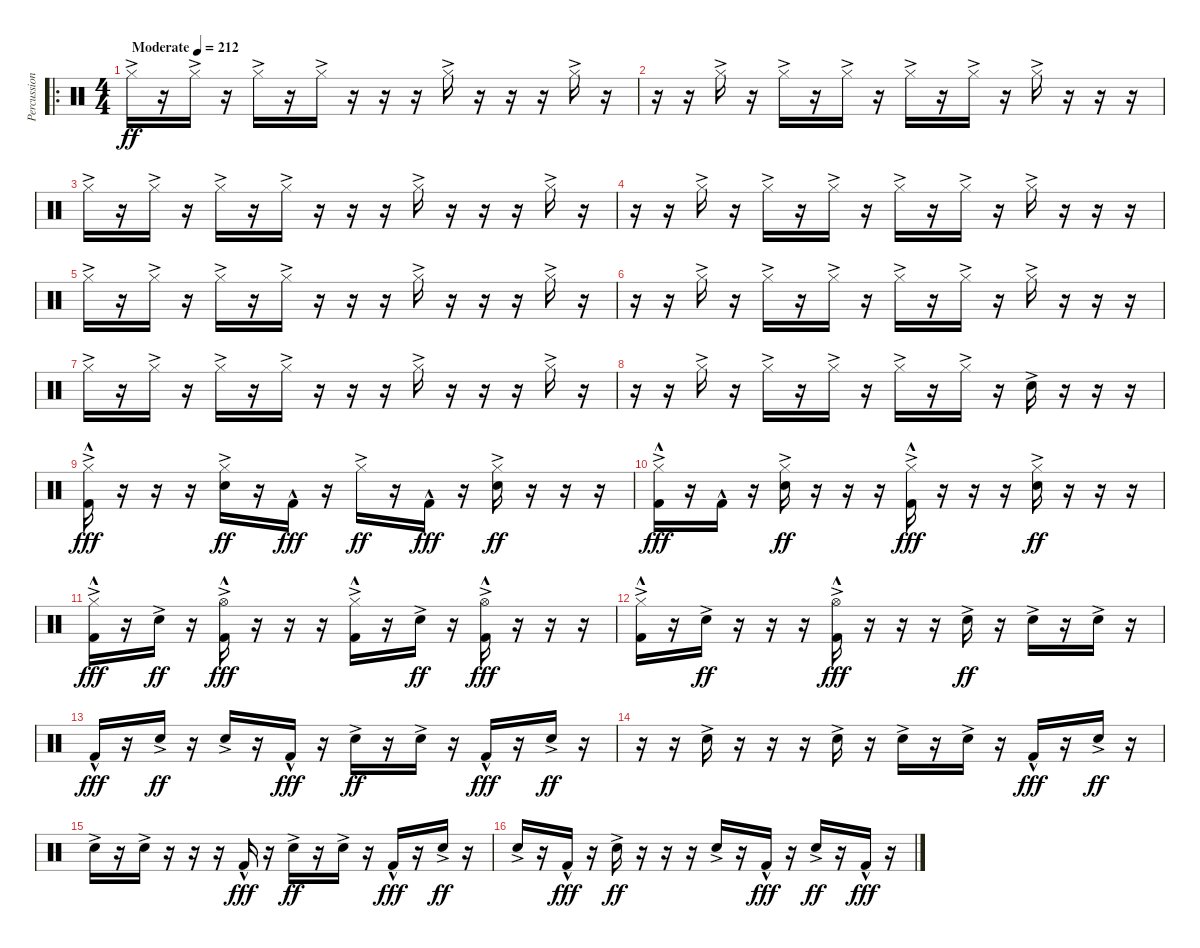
\track ("Percussion" "Percussion") {instrument percussion}
\staff {score}
\articulation defaults
\ro
\ts (4 4)
\tempo (212 "Moderate")
\clef neutral
\ks c "Hi-Hat (closed)"{ac}.16{dy ff}
r.16 "Hi-Hat (closed)"{ac}.16 r.16 "Hi-Hat (closed)"{ac}.16 r.16 "Hi-Hat (closed)"{ac}.16 r.16 r.16 r.16 "Hi-Hat (closed)"{ac}.16 r.16 r.16 r.16 "Hi-Hat (closed)"{ac}.16 r.16 |
r.16 r.16 "Hi-Hat (closed)"{ac}.16 r.16 "Hi-Hat (closed)"{ac}.16 r.16 "Hi-Hat (closed)"{ac}.16 r.16 "Hi-Hat (closed)"{ac}.16 r.16 "Hi-Hat (closed)"{ac}.16 r.16 "Hi-Hat (closed)"{ac}.16 r.16 r.16 r.16 |
"Hi-Hat (closed)"{ac}.16 r.16 "Hi-Hat (closed)"{ac}.16 r.16 "Hi-Hat (closed)"{ac}.16 r.16 "Hi-Hat (closed)"{ac}.16 r.16 r.16 r.16 "Hi-Hat (closed)"{ac}.16 r.16 r.16 r.16 "Hi-Hat (closed)"{ac}.16 r.16 |
r.16 r.16 "Hi-Hat (closed)"{ac}.16 r.16 "Hi-Hat (closed)"{ac}.16 r.16 "Hi-Hat (closed)"{ac}.16 r.16 "Hi-Hat (closed)"{ac}.16 r.16 "Hi-Hat (closed)"{ac}.16 r.16 "Hi-Hat (closed)"{ac}.16 r.16 r.16 r.16 |
"Hi-Hat (closed)"{ac}.16 r.16 "Hi-Hat (closed)"{ac}.16 r.16 "Hi-Hat (closed)"{ac}.16 r.16 "Hi-Hat (closed)"{ac}.16 r.16 r.16 r.16 "Hi-Hat (closed)"{ac}.16 r.16 r.16 r.16 "Hi-Hat (closed)"{ac}.16 r.16 |
r.16 r.16 "Hi-Hat (closed)"{ac}.16 r.16 "Hi-Hat (closed)"{ac}.16 r.16 "Hi-Hat (closed)"{ac}.16 r.16 "Hi-Hat (closed)"{ac}.16 r.16 "Hi-Hat (closed)"{ac}.16 r.16 "Hi-Hat (closed)"{ac}.16 r.16 r.16 r.16 |
"Hi-Hat (closed)"{ac}.16 r.16 "Hi-Hat (closed)"{ac}.16 r.16 "Hi-Hat (closed)"{ac}.16 r.16 "Hi-Hat (closed)"{ac}.16 r.16 r.16 r.16 "Hi-Hat (closed)"{ac}.16 r.16 r.16 r.16 "Hi-Hat (closed)"{ac}.16 r.16 |
r.16 r.16 "Hi-Hat (closed)"{ac}.16 r.16 "Hi-Hat (closed)"{ac}.16 r.16 "Hi-Hat (closed)"{ac}.16 r.16 "Hi-Hat (closed)"{ac}.16 r.16 "Hi-Hat (closed)"{ac}.16 r.16 "Snare (hit) 2"{ac}.16 r.16 r.16 r.16 |
("Hi-Hat (closed)"{ac} "Kick (hit) 2"{hac}).16{dy fff} r.16 r.16 r.16 ("Hi-Hat (closed)"{ac} "Snare (hit) 2"{ac}).16{dy ff} r.16 "Kick (hit) 2"{hac}.16{dy fff} r.16 "Hi-Hat (closed)"{ac}.16{dy ff} r.16 "Kick (hit) 2"{hac}.16{dy fff} r.16 ("Hi-Hat (closed)"{ac} "Snare (hit) 2"{ac}).16{dy ff} r.16 r.16 r.16 |
("Hi-Hat (closed)"{ac} "Kick (hit) 2"{hac}).16{dy fff} r.16 "Kick (hit) 2"{hac}.16 r.16 ("Hi-Hat (closed)"{ac} "Snare (hit) 2"{ac}).16{dy ff} r.16 r.16 r.16 ("Hi-Hat (closed)"{ac} "Kick (hit) 2"{hac}).16{dy fff} r.16 r.16 r.16 ("Hi-Hat (closed)"{ac} "Snare (hit) 2"{ac}).16{dy ff} r.16 r.16 r.16 |
("Hi-Hat (closed)"{ac} "Kick (hit) 2"{hac}).16{dy fff} r.16 "Snare (hit) 2"{ac}.16{dy ff} r.16 ("Hi-Hat (open)"{ac} "Kick (hit) 2"{hac}).16{dy fff} r.16 r.16 r.16 ("Hi-Hat (closed)"{ac} "Kick (hit) 2"{hac}).16 r.16 "Snare (hit) 2"{ac}.16{dy ff} r.16 ("Hi-Hat (open)"{ac} "Kick (hit) 2"{hac}).16{dy fff} r.16 r.16 r.16 |
("Hi-Hat (closed)"{ac} "Kick (hit) 2"{hac}).16 r.16 "Snare (hit) 2"{ac}.16{dy ff} r.16 r.16 r.16 ("Hi-Hat (open)"{ac} "Kick (hit) 2"{hac}).16{dy fff} r.16 r.16 r.16 "Snare (hit) 2"{ac}.16{dy ff} r.16 "Snare (hit) 2"{ac}.16 r.16 "Snare (hit) 2"{ac}.16 r.16 |
"Kick (hit) 2"{hac}.16{dy fff} r.16 "Snare (hit) 2"{ac}.16{dy ff} r.16 "Snare (hit) 2"{ac}.16 r.16 "Kick (hit) 2"{hac}.16{dy fff} r.16 "Snare (hit) 2"{ac}.16{dy ff} r.16 "Snare (hit) 2"{ac}.16 r.16 "Kick (hit) 2"{hac}.16{dy fff} r.16 "Snare (hit) 2"{ac}.16{dy ff} r.16 |
r.16 r.16 "Snare (hit) 2"{ac}.16 r.16 r.16 r.16 "Snare (hit) 2"{ac}.16 r.16 "Snare (hit) 2"{ac}.16 r.16 "Snare (hit) 2"{ac}.16 r.16 "Kick (hit) 2"{hac}.16{dy fff} r.16 "Snare (hit) 2"{ac}.16{dy ff} r.16 |
"Snare (hit) 2"{ac}.16 r.16 "Snare (hit) 2"{ac}.16 r.16 r.16 r.16 "Kick (hit) 2"{hac}.16{dy fff} r.16 "Snare (hit) 2"{ac}.16{dy ff} r.16 "Snare (hit) 2"{ac}.16 r.16 "Kick (hit) 2"{hac}.16{dy fff} r.16 "Snare (hit) 2"{ac}.16{dy ff} r.16 |
"Snare (hit) 2"{ac}.16 r.16 "Kick (hit) 2"{hac}.16{dy fff} r.16 "Snare (hit) 2"{ac}.16{dy ff} r.16 r.16 r.16 "Snare (hit) 2"{ac}.16 r.16 "Kick (hit) 2"{hac}.16{dy fff} r.16 "Snare (hit) 2"{ac}.16{dy ff} r.16 "Kick (hit) 2"{hac}.16{dy fff} r.16
